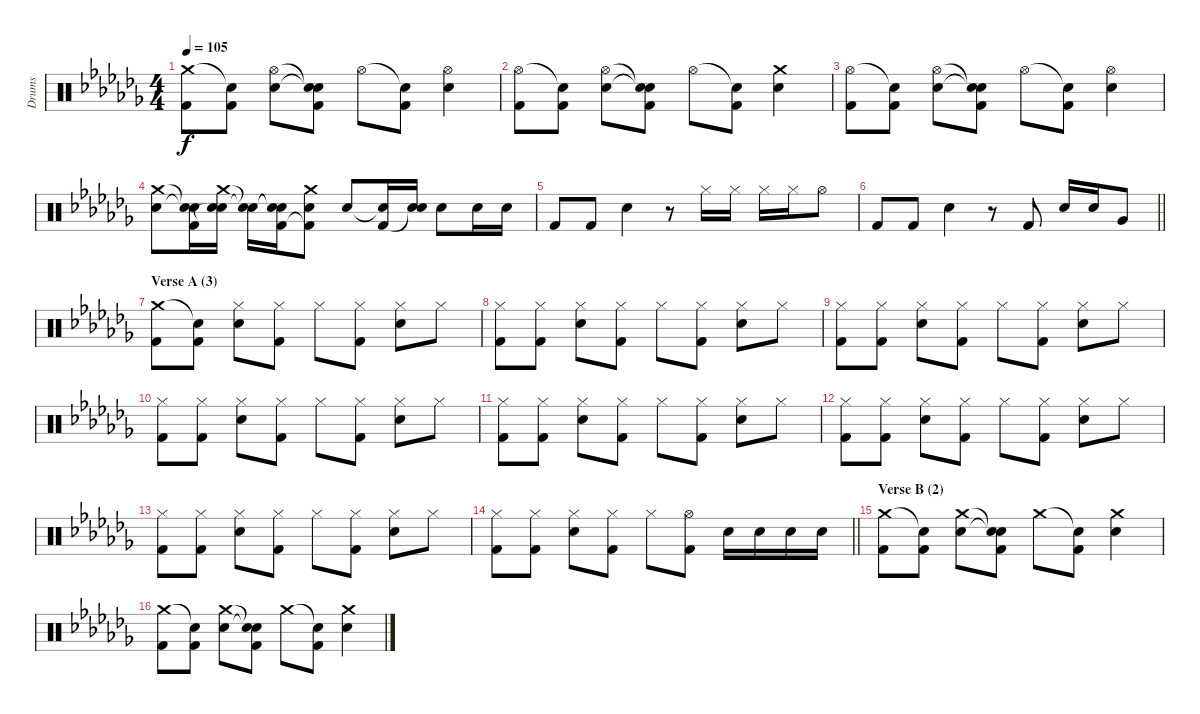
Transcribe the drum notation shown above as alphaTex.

\track ("Drums" "Drums") {instrument percussion}
\staff {score}
\articulation defaults
\ts (4 4)
\tempo 105
\clef neutral
\ks abminor
("Crash medium (hit)" "Kick (hit) 2").8{dy f} ("Snare (hit)"{t} "Kick (hit) 2").8 ("Hi-Hat (open)" "Electric Snare (hit)").8 ("Snare (hit)"{t} "Snare (hit)"{t} "Kick (hit) 2").8 "Hi-Hat (open)".8 ("Snare (hit)"{t} "Kick (hit) 2").8 ("Hi-Hat (open)" "Electric Snare (hit)").4 |
("Hi-Hat (open)" "Kick (hit) 2").8 ("Snare (hit)"{t} "Kick (hit) 2").8 ("Hi-Hat (open)" "Electric Snare (hit)").8 ("Snare (hit)"{t} "Snare (hit)"{t} "Kick (hit) 2").8 "Hi-Hat (open)".8 ("Snare (hit)"{t} "Kick (hit) 2").8 ("Crash medium (hit)" "Electric Snare (hit)").4 |
("Hi-Hat (open)" "Kick (hit) 2").8 ("Snare (hit)"{t} "Kick (hit) 2").8 ("Hi-Hat (open)" "Electric Snare (hit)").8 ("Snare (hit)"{t} "Snare (hit)"{t} "Kick (hit) 2").8 "Hi-Hat (open)".8 ("Snare (hit)"{t} "Kick (hit) 2").8 ("Hi-Hat (open)" "Electric Snare (hit)").4 |
("Crash medium (hit)" "Electric Snare (hit)").8 ("Snare (hit)"{t} "Snare (hit)"{t} "Kick (hit) 2").16 ("Crash medium (hit)" "Electric Snare (hit)" "Snare (hit)"{t}).16 ("Snare (hit)"{t} "Snare (hit)"{t}).16 ("Snare (hit)"{t} "Snare (hit)"{t} "Kick (hit) 2").16 ("Crash medium (hit)" "Electric Snare (hit)" "Kick (hit) 2"{t}).8 "Electric Snare (hit)".8 ("Snare (hit)"{t} "Kick (hit) 2").16 ("Electric Snare (hit)" "Snare (hit)"{t}).16 "Electric Snare (hit)".8 "Electric Snare (hit)".16 "Electric Snare (hit)".16 |
"Kick (hit) 2".8 "Kick (hit) 2".8 "Electric Snare (hit)".4 r.8 "Hi-Hat (closed)".16 "Hi-Hat (closed)".16 "Hi-Hat (closed)".16 "Hi-Hat (closed)".16 "Hi-Hat (open)".8 |
\barLineRight lightlight "Kick (hit) 2".8 "Kick (hit) 2".8 "Electric Snare (hit)".4
r.8 "Kick (hit) 2".8 "Electric Snare (hit)".16 "Electric Snare (hit)".16 "Very Low Tom (hit)".8 |
\section ("" "Verse A (3)")
("Crash medium (hit)" "Kick (hit) 2").8 ("Snare (hit)"{t} "Kick (hit) 2").8 ("Hi-Hat (closed)" "Electric Snare (hit)").8 ("Hi-Hat (closed)" "Kick (hit) 2").8 "Hi-Hat (closed)".8 ("Hi-Hat (closed)" "Kick (hit) 2").8 ("Hi-Hat (closed)" "Electric Snare (hit)").8 "Hi-Hat (closed)".8 |
("Hi-Hat (closed)" "Kick (hit) 2").8 ("Hi-Hat (closed)" "Kick (hit) 2").8 ("Hi-Hat (closed)" "Electric Snare (hit)").8 ("Hi-Hat (closed)" "Kick (hit) 2").8 "Hi-Hat (closed)".8 ("Hi-Hat (closed)" "Kick (hit) 2").8 ("Hi-Hat (closed)" "Electric Snare (hit)").8 "Hi-Hat (closed)".8 |
("Hi-Hat (closed)" "Kick (hit) 2").8 ("Hi-Hat (closed)" "Kick (hit) 2").8 ("Hi-Hat (closed)" "Electric Snare (hit)").8 ("Hi-Hat (closed)" "Kick (hit) 2").8 "Hi-Hat (closed)".8 ("Hi-Hat (closed)" "Kick (hit) 2").8 ("Hi-Hat (closed)" "Electric Snare (hit)").8 "Hi-Hat (closed)".8 |
("Hi-Hat (closed)" "Kick (hit) 2").8 ("Hi-Hat (closed)" "Kick (hit) 2").8 ("Hi-Hat (closed)" "Electric Snare (hit)").8 ("Hi-Hat (closed)" "Kick (hit) 2").8 "Hi-Hat (closed)".8 ("Hi-Hat (closed)" "Kick (hit) 2").8 ("Hi-Hat (closed)" "Electric Snare (hit)").8 "Hi-Hat (closed)".8 |
("Hi-Hat (closed)" "Kick (hit) 2").8 ("Hi-Hat (closed)" "Kick (hit) 2").8 ("Hi-Hat (closed)" "Electric Snare (hit)").8 ("Hi-Hat (closed)" "Kick (hit) 2").8 "Hi-Hat (closed)".8 ("Hi-Hat (closed)" "Kick (hit) 2").8 ("Hi-Hat (closed)" "Electric Snare (hit)").8 "Hi-Hat (closed)".8 |
("Hi-Hat (closed)" "Kick (hit) 2").8 ("Hi-Hat (closed)" "Kick (hit) 2").8 ("Hi-Hat (closed)" "Electric Snare (hit)").8 ("Hi-Hat (closed)" "Kick (hit) 2").8 "Hi-Hat (closed)".8 ("Hi-Hat (closed)" "Kick (hit) 2").8 ("Hi-Hat (closed)" "Electric Snare (hit)").8 "Hi-Hat (closed)".8 |
("Hi-Hat (closed)" "Kick (hit) 2").8 ("Hi-Hat (closed)" "Kick (hit) 2").8 ("Hi-Hat (closed)" "Electric Snare (hit)").8 ("Hi-Hat (closed)" "Kick (hit) 2").8 "Hi-Hat (closed)".8 ("Hi-Hat (closed)" "Kick (hit) 2").8 ("Hi-Hat (closed)" "Electric Snare (hit)").8 "Hi-Hat (closed)".8 |
\barLineRight lightlight
("Hi-Hat (closed)" "Kick (hit) 2").8 ("Hi-Hat (closed)" "Kick (hit) 2").8 ("Hi-Hat (closed)" "Electric Snare (hit)").8 ("Hi-Hat (closed)" "Kick (hit) 2").8 "Hi-Hat (closed)".8 ("Hi-Hat (open)" "Kick (hit) 2").8 "Electric Snare (hit)".16 "Electric Snare (hit)".16 "Electric Snare (hit)".16 "Electric Snare (hit)".16 |
\section ("" "Verse B (2)")
("Crash medium (hit)" "Kick (hit) 2").8 ("Snare (hit)"{t} "Kick (hit) 2").8 ("Crash medium (hit)" "Electric Snare (hit)").8 ("Snare (hit)"{t} "Snare (hit)"{t} "Kick (hit) 2").8 "Crash medium (hit)".8 ("Snare (hit)"{t} "Kick (hit) 2").8 ("Crash medium (hit)" "Electric Snare (hit)").4 |
("Crash medium (hit)" "Kick (hit) 2").8 ("Snare (hit)"{t} "Kick (hit) 2").8 ("Crash medium (hit)" "Electric Snare (hit)").8 ("Snare (hit)"{t} "Snare (hit)"{t} "Kick (hit) 2").8 "Crash medium (hit)".8 ("Snare (hit)"{t} "Kick (hit) 2").8 ("Crash medium (hit)" "Electric Snare (hit)").4
